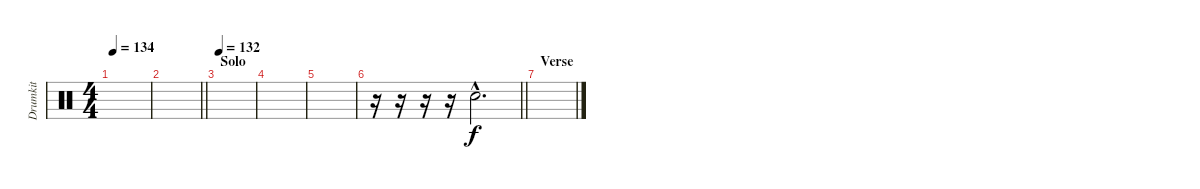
\track ("Drumkit" "Drumkit") {instrument percussion}
\staff {score}
\articulation defaults
\ts (4 4)
\tempo 134
\clef neutral
\ks c
|
\barLineRight lightlight
|
\section ("" "Solo")
\tempo 132
|
|
|
\barLineRight lightlight
r.16 r.16 r.16 r.16 "Snare (hit) 2"{hac}.2{d} |
\section ("" "Verse")
